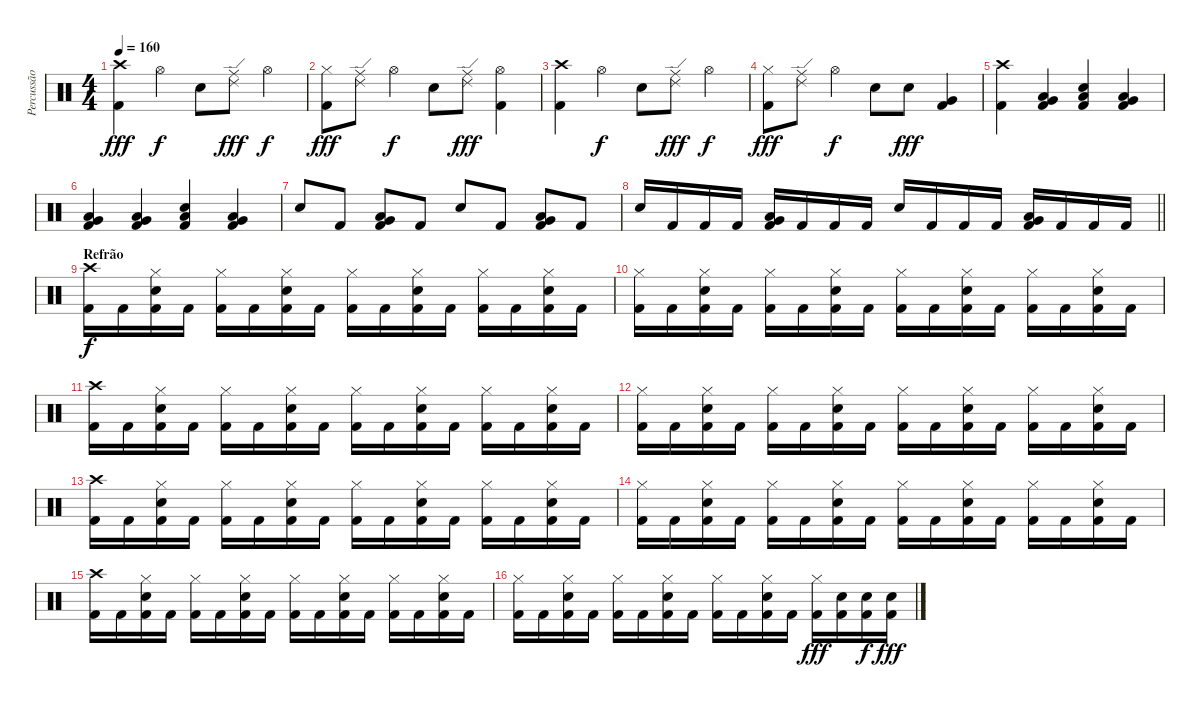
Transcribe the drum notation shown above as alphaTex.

\track ("Percussão" "Percussão") {instrument percussion}
\staff {score}
\articulation defaults
\ts (4 4)
\tempo 160
\clef neutral
\ks c
("Crash high (hit)" "Kick (hit) 2").4{dy fff} "Hi-Hat (open)".4{dy f} "Electric Snare (hit)".8 ("Ride (edge) 2" "Ride (middle)").8{dy fff} "Hi-Hat (open)".4{dy f} |
("Hi-Hat (closed)" "Kick (hit) 2").8{dy fff} ("Ride (edge) 2" "Ride (middle)").8 "Hi-Hat (open)".4{dy f} "Electric Snare (hit)".8 ("Ride (edge) 2" "Ride (middle)").8{dy fff} ("Hi-Hat (open)" "Kick (hit) 2").4 |
("Crash high (hit)" "Kick (hit) 2").4 "Hi-Hat (open)".4{dy f} "Electric Snare (hit)".8 ("Ride (edge) 2" "Ride (middle)").8{dy fff} "Hi-Hat (open)".4{dy f} |
("Hi-Hat (closed)" "Kick (hit) 2").8{dy fff} ("Ride (edge) 2" "Ride (middle)").8 "Hi-Hat (open)".4{dy f} "Electric Snare (hit)".8 "Electric Snare (hit)".8{dy fff} ("Very Low Tom (hit)" "Kick (hit) 2").4 |
("Crash high (hit)" "Kick (hit) 2").4 ("Very Low Tom (hit)" "Low Floor Tom (hit)" "Kick (hit) 2").4 ("Electric Snare (hit)" "Low Floor Tom (hit)" "Kick (hit) 2").4 ("Very Low Tom (hit)" "Low Floor Tom (hit)" "Kick (hit) 2").4 |
("Very Low Tom (hit)" "Low Floor Tom (hit)" "Kick (hit) 2").4 ("Very Low Tom (hit)" "Low Floor Tom (hit)" "Kick (hit) 2").4 ("Electric Snare (hit)" "Low Floor Tom (hit)" "Kick (hit) 2").4 ("Very Low Tom (hit)" "Low Floor Tom (hit)" "Kick (hit) 2").4 |
"Electric Snare (hit)".8 "Kick (hit) 2".8 ("Very Low Tom (hit)" "Low Floor Tom (hit)" "Kick (hit) 2").8 "Kick (hit) 2".8 "Electric Snare (hit)".8 "Kick (hit) 2".8 ("Very Low Tom (hit)" "Low Floor Tom (hit)" "Kick (hit) 2").8 "Kick (hit) 2".8 |
\barLineRight lightlight "Electric Snare (hit)".16 "Kick (hit) 2".16 "Kick (hit) 2".16 "Kick (hit) 2".16
("Very Low Tom (hit)" "Low Floor Tom (hit)" "Kick (hit) 2").16 "Kick (hit) 2".16 "Kick (hit) 2".16 "Kick (hit) 2".16 "Electric Snare (hit)".16 "Kick (hit) 2".16 "Kick (hit) 2".16 "Kick (hit) 2".16 ("Very Low Tom (hit)" "Low Floor Tom (hit)" "Kick (hit) 2").16 "Kick (hit) 2".16 "Kick (hit) 2".16 "Kick (hit) 2".16 |
\section ("" "Refrão")
("Crash high (hit)" "Kick (hit) 2").16{dy f} "Kick (hit) 2".16 ("Hi-Hat (closed)" "Electric Snare (hit)" "Kick (hit) 2").16 "Kick (hit) 2".16 ("Hi-Hat (closed)" "Kick (hit) 2").16 "Kick (hit) 2".16 ("Hi-Hat (closed)" "Electric Snare (hit)" "Kick (hit) 2").16 "Kick (hit) 2".16 ("Hi-Hat (closed)" "Kick (hit) 2").16 "Kick (hit) 2".16 ("Hi-Hat (closed)" "Electric Snare (hit)" "Kick (hit) 2").16 "Kick (hit) 2".16 ("Hi-Hat (closed)" "Kick (hit) 2").16 "Kick (hit) 2".16 ("Hi-Hat (closed)" "Electric Snare (hit)" "Kick (hit) 2").16 "Kick (hit) 2".16 |
("Hi-Hat (closed)" "Kick (hit) 2").16 "Kick (hit) 2".16 ("Hi-Hat (closed)" "Electric Snare (hit)" "Kick (hit) 2").16 "Kick (hit) 2".16 ("Hi-Hat (closed)" "Kick (hit) 2").16 "Kick (hit) 2".16 ("Hi-Hat (closed)" "Electric Snare (hit)" "Kick (hit) 2").16 "Kick (hit) 2".16 ("Hi-Hat (closed)" "Kick (hit) 2").16 "Kick (hit) 2".16 ("Hi-Hat (closed)" "Electric Snare (hit)" "Kick (hit) 2").16 "Kick (hit) 2".16 ("Hi-Hat (closed)" "Kick (hit) 2").16 "Kick (hit) 2".16 ("Hi-Hat (closed)" "Electric Snare (hit)" "Kick (hit) 2").16 "Kick (hit) 2".16 |
("Crash high (hit)" "Kick (hit) 2").16 "Kick (hit) 2".16 ("Hi-Hat (closed)" "Electric Snare (hit)" "Kick (hit) 2").16 "Kick (hit) 2".16 ("Hi-Hat (closed)" "Kick (hit) 2").16 "Kick (hit) 2".16 ("Hi-Hat (closed)" "Electric Snare (hit)" "Kick (hit) 2").16 "Kick (hit) 2".16 ("Hi-Hat (closed)" "Kick (hit) 2").16 "Kick (hit) 2".16 ("Hi-Hat (closed)" "Electric Snare (hit)" "Kick (hit) 2").16 "Kick (hit) 2".16 ("Hi-Hat (closed)" "Kick (hit) 2").16 "Kick (hit) 2".16 ("Hi-Hat (closed)" "Electric Snare (hit)" "Kick (hit) 2").16 "Kick (hit) 2".16 |
("Hi-Hat (closed)" "Kick (hit) 2").16 "Kick (hit) 2".16 ("Hi-Hat (closed)" "Electric Snare (hit)" "Kick (hit) 2").16 "Kick (hit) 2".16 ("Hi-Hat (closed)" "Kick (hit) 2").16 "Kick (hit) 2".16 ("Hi-Hat (closed)" "Electric Snare (hit)" "Kick (hit) 2").16 "Kick (hit) 2".16 ("Hi-Hat (closed)" "Kick (hit) 2").16 "Kick (hit) 2".16 ("Hi-Hat (closed)" "Electric Snare (hit)" "Kick (hit) 2").16 "Kick (hit) 2".16 ("Hi-Hat (closed)" "Kick (hit) 2").16 "Kick (hit) 2".16 ("Hi-Hat (closed)" "Electric Snare (hit)" "Kick (hit) 2").16 "Kick (hit) 2".16 |
("Crash high (hit)" "Kick (hit) 2").16 "Kick (hit) 2".16 ("Hi-Hat (closed)" "Electric Snare (hit)" "Kick (hit) 2").16 "Kick (hit) 2".16 ("Hi-Hat (closed)" "Kick (hit) 2").16 "Kick (hit) 2".16 ("Hi-Hat (closed)" "Electric Snare (hit)" "Kick (hit) 2").16 "Kick (hit) 2".16 ("Hi-Hat (closed)" "Kick (hit) 2").16 "Kick (hit) 2".16 ("Hi-Hat (closed)" "Electric Snare (hit)" "Kick (hit) 2").16 "Kick (hit) 2".16 ("Hi-Hat (closed)" "Kick (hit) 2").16 "Kick (hit) 2".16 ("Hi-Hat (closed)" "Electric Snare (hit)" "Kick (hit) 2").16 "Kick (hit) 2".16 |
("Hi-Hat (closed)" "Kick (hit) 2").16 "Kick (hit) 2".16 ("Hi-Hat (closed)" "Electric Snare (hit)" "Kick (hit) 2").16 "Kick (hit) 2".16 ("Hi-Hat (closed)" "Kick (hit) 2").16 "Kick (hit) 2".16 ("Hi-Hat (closed)" "Electric Snare (hit)" "Kick (hit) 2").16 "Kick (hit) 2".16 ("Hi-Hat (closed)" "Kick (hit) 2").16 "Kick (hit) 2".16 ("Hi-Hat (closed)" "Electric Snare (hit)" "Kick (hit) 2").16 "Kick (hit) 2".16 ("Hi-Hat (closed)" "Kick (hit) 2").16 "Kick (hit) 2".16 ("Hi-Hat (closed)" "Electric Snare (hit)" "Kick (hit) 2").16 "Kick (hit) 2".16 |
("Crash high (hit)" "Kick (hit) 2").16 "Kick (hit) 2".16 ("Hi-Hat (closed)" "Electric Snare (hit)" "Kick (hit) 2").16 "Kick (hit) 2".16 ("Hi-Hat (closed)" "Kick (hit) 2").16 "Kick (hit) 2".16 ("Hi-Hat (closed)" "Electric Snare (hit)" "Kick (hit) 2").16 "Kick (hit) 2".16 ("Hi-Hat (closed)" "Kick (hit) 2").16 "Kick (hit) 2".16 ("Hi-Hat (closed)" "Electric Snare (hit)" "Kick (hit) 2").16 "Kick (hit) 2".16 ("Hi-Hat (closed)" "Kick (hit) 2").16 "Kick (hit) 2".16 ("Hi-Hat (closed)" "Electric Snare (hit)" "Kick (hit) 2").16 "Kick (hit) 2".16 |
("Hi-Hat (closed)" "Kick (hit) 2").16 "Kick (hit) 2".16 ("Hi-Hat (closed)" "Electric Snare (hit)" "Kick (hit) 2").16 "Kick (hit) 2".16 ("Hi-Hat (closed)" "Kick (hit) 2").16 "Kick (hit) 2".16 ("Hi-Hat (closed)" "Electric Snare (hit)" "Kick (hit) 2").16 "Kick (hit) 2".16 ("Hi-Hat (closed)" "Kick (hit) 2").16 "Kick (hit) 2".16 ("Hi-Hat (closed)" "Electric Snare (hit)" "Kick (hit) 2").16 "Kick (hit) 2".16 ("Hi-Hat (closed)" "Kick (hit) 2").16{dy fff} ("Electric Snare (hit)" "Kick (hit) 2").16 ("Electric Snare (hit)" "Kick (hit) 2").16{dy f} ("Electric Snare (hit)" "Kick (hit) 2").16{dy fff}
